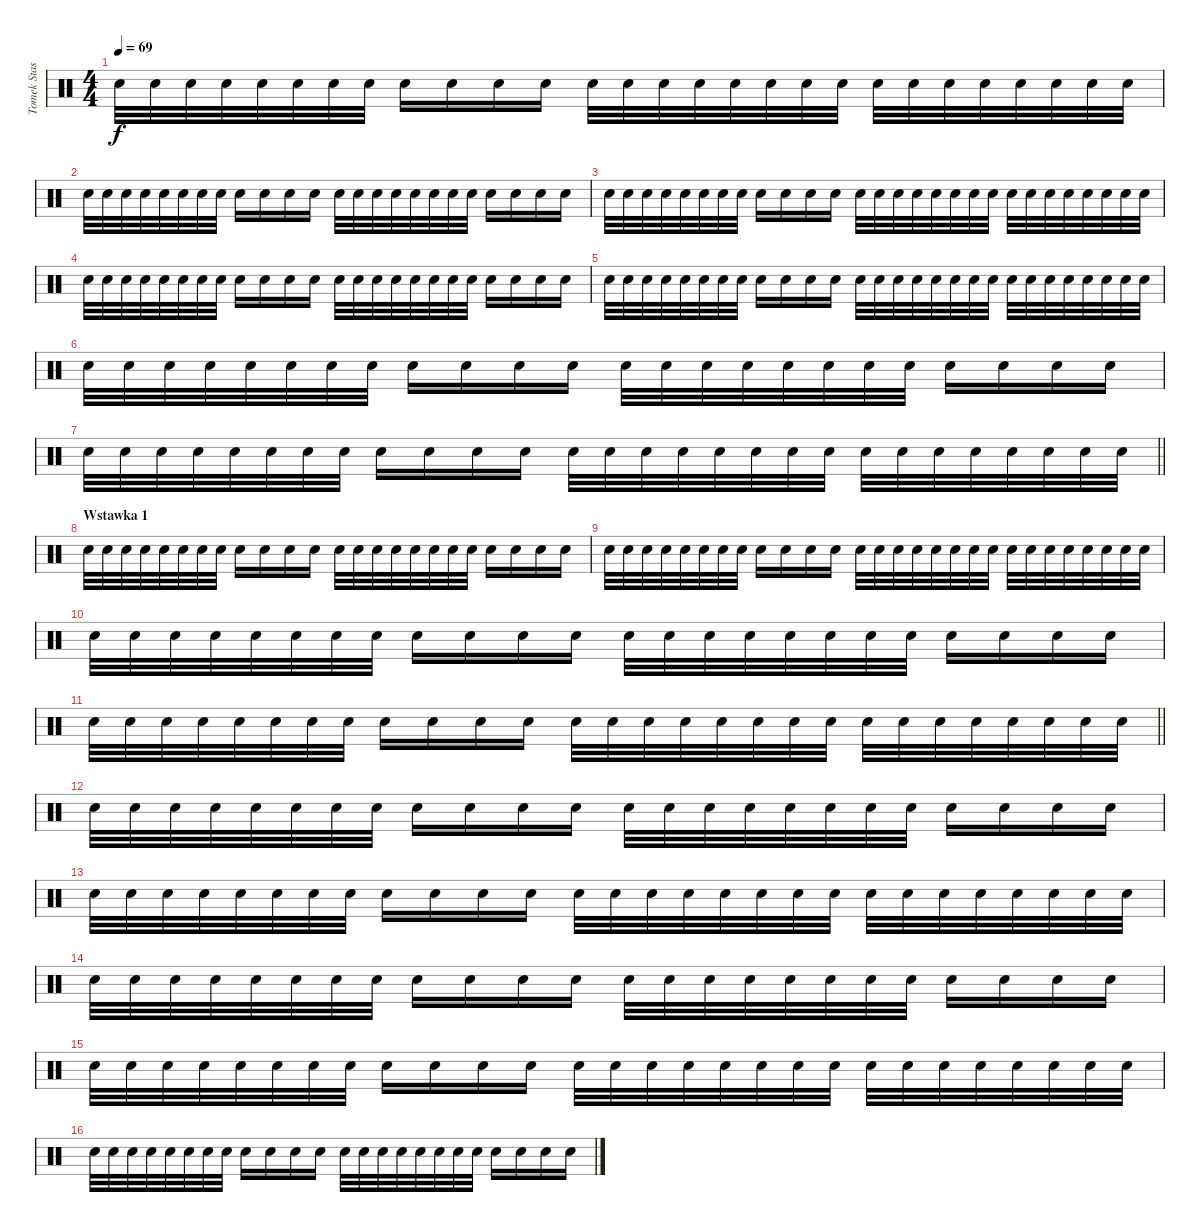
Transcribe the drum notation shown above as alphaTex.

\track ("Tomek Stasiak" "Tomek Stas") {instrument percussion}
\staff {score}
\articulation defaults
\ts (4 4)
\tempo 69
\clef neutral
\ks c "Snare (hit) 2".32{dy f volume 10} "Snare (hit) 2".32{volume 7} "Snare (hit) 2".32 "Snare (hit) 2".32 "Snare (hit) 2".32 "Snare (hit) 2".32 "Snare (hit) 2".32 "Snare (hit) 2".32 "Snare (hit) 2".16 "Snare (hit) 2".16 "Snare (hit) 2".16 "Snare (hit) 2".16 "Snare (hit) 2".32{volume 10} "Snare (hit) 2".32{volume 7} "Snare (hit) 2".32 "Snare (hit) 2".32 "Snare (hit) 2".32 "Snare (hit) 2".32 "Snare (hit) 2".32 "Snare (hit) 2".32 "Snare (hit) 2".32{volume 10} "Snare (hit) 2".32{volume 7} "Snare (hit) 2".32 "Snare (hit) 2".32 "Snare (hit) 2".32 "Snare (hit) 2".32 "Snare (hit) 2".32 "Snare (hit) 2".32
|
"Snare (hit) 2".32{volume 10} "Snare (hit) 2".32{volume 7} "Snare (hit) 2".32 "Snare (hit) 2".32 "Snare (hit) 2".32 "Snare (hit) 2".32 "Snare (hit) 2".32 "Snare (hit) 2".32 "Snare (hit) 2".16 "Snare (hit) 2".16 "Snare (hit) 2".16 "Snare (hit) 2".16 "Snare (hit) 2".32{volume 10} "Snare (hit) 2".32{volume 7} "Snare (hit) 2".32 "Snare (hit) 2".32 "Snare (hit) 2".32 "Snare (hit) 2".32 "Snare (hit) 2".32 "Snare (hit) 2".32 "Snare (hit) 2".16 "Snare (hit) 2".16 "Snare (hit) 2".16 "Snare (hit) 2".16 |
"Snare (hit) 2".32{volume 10} "Snare (hit) 2".32{volume 7} "Snare (hit) 2".32 "Snare (hit) 2".32 "Snare (hit) 2".32 "Snare (hit) 2".32 "Snare (hit) 2".32 "Snare (hit) 2".32 "Snare (hit) 2".16 "Snare (hit) 2".16 "Snare (hit) 2".16 "Snare (hit) 2".16 "Snare (hit) 2".32{volume 10} "Snare (hit) 2".32{volume 7} "Snare (hit) 2".32 "Snare (hit) 2".32 "Snare (hit) 2".32 "Snare (hit) 2".32 "Snare (hit) 2".32 "Snare (hit) 2".32 "Snare (hit) 2".32{volume 10} "Snare (hit) 2".32{volume 7} "Snare (hit) 2".32 "Snare (hit) 2".32 "Snare (hit) 2".32 "Snare (hit) 2".32 "Snare (hit) 2".32 "Snare (hit) 2".32 |
"Snare (hit) 2".32{volume 10} "Snare (hit) 2".32{volume 7} "Snare (hit) 2".32 "Snare (hit) 2".32 "Snare (hit) 2".32 "Snare (hit) 2".32 "Snare (hit) 2".32 "Snare (hit) 2".32 "Snare (hit) 2".16 "Snare (hit) 2".16 "Snare (hit) 2".16 "Snare (hit) 2".16 "Snare (hit) 2".32{volume 10} "Snare (hit) 2".32{volume 7} "Snare (hit) 2".32 "Snare (hit) 2".32 "Snare (hit) 2".32 "Snare (hit) 2".32 "Snare (hit) 2".32 "Snare (hit) 2".32 "Snare (hit) 2".16 "Snare (hit) 2".16 "Snare (hit) 2".16 "Snare (hit) 2".16 |
"Snare (hit) 2".32{volume 10} "Snare (hit) 2".32{volume 7} "Snare (hit) 2".32 "Snare (hit) 2".32 "Snare (hit) 2".32 "Snare (hit) 2".32 "Snare (hit) 2".32 "Snare (hit) 2".32 "Snare (hit) 2".16 "Snare (hit) 2".16 "Snare (hit) 2".16 "Snare (hit) 2".16 "Snare (hit) 2".32{volume 10} "Snare (hit) 2".32{volume 7} "Snare (hit) 2".32 "Snare (hit) 2".32 "Snare (hit) 2".32 "Snare (hit) 2".32 "Snare (hit) 2".32 "Snare (hit) 2".32 "Snare (hit) 2".32{volume 10} "Snare (hit) 2".32{volume 7} "Snare (hit) 2".32 "Snare (hit) 2".32 "Snare (hit) 2".32 "Snare (hit) 2".32 "Snare (hit) 2".32 "Snare (hit) 2".32 |
"Snare (hit) 2".32{volume 10} "Snare (hit) 2".32{volume 7} "Snare (hit) 2".32 "Snare (hit) 2".32 "Snare (hit) 2".32 "Snare (hit) 2".32 "Snare (hit) 2".32 "Snare (hit) 2".32 "Snare (hit) 2".16 "Snare (hit) 2".16 "Snare (hit) 2".16 "Snare (hit) 2".16 "Snare (hit) 2".32{volume 10} "Snare (hit) 2".32{volume 7} "Snare (hit) 2".32 "Snare (hit) 2".32 "Snare (hit) 2".32 "Snare (hit) 2".32 "Snare (hit) 2".32 "Snare (hit) 2".32 "Snare (hit) 2".16 "Snare (hit) 2".16 "Snare (hit) 2".16 "Snare (hit) 2".16 |
\barLineRight lightlight "Snare (hit) 2".32{volume 10} "Snare (hit) 2".32{volume 7} "Snare (hit) 2".32 "Snare (hit) 2".32 "Snare (hit) 2".32 "Snare (hit) 2".32 "Snare (hit) 2".32 "Snare (hit) 2".32 "Snare (hit) 2".16 "Snare (hit) 2".16 "Snare (hit) 2".16 "Snare (hit) 2".16 "Snare (hit) 2".32{volume 10} "Snare (hit) 2".32{volume 7} "Snare (hit) 2".32 "Snare (hit) 2".32 "Snare (hit) 2".32 "Snare (hit) 2".32 "Snare (hit) 2".32 "Snare (hit) 2".32 "Snare (hit) 2".32{volume 10} "Snare (hit) 2".32{volume 7} "Snare (hit) 2".32 "Snare (hit) 2".32 "Snare (hit) 2".32 "Snare (hit) 2".32 "Snare (hit) 2".32 "Snare (hit) 2".32
|
\section ("" "Wstawka 1")
"Snare (hit) 2".32{volume 10} "Snare (hit) 2".32{volume 7} "Snare (hit) 2".32 "Snare (hit) 2".32 "Snare (hit) 2".32 "Snare (hit) 2".32 "Snare (hit) 2".32 "Snare (hit) 2".32 "Snare (hit) 2".16 "Snare (hit) 2".16 "Snare (hit) 2".16 "Snare (hit) 2".16 "Snare (hit) 2".32{volume 10} "Snare (hit) 2".32{volume 7} "Snare (hit) 2".32 "Snare (hit) 2".32 "Snare (hit) 2".32 "Snare (hit) 2".32 "Snare (hit) 2".32 "Snare (hit) 2".32 "Snare (hit) 2".16 "Snare (hit) 2".16 "Snare (hit) 2".16 "Snare (hit) 2".16 |
"Snare (hit) 2".32{volume 10} "Snare (hit) 2".32{volume 7} "Snare (hit) 2".32 "Snare (hit) 2".32 "Snare (hit) 2".32 "Snare (hit) 2".32 "Snare (hit) 2".32 "Snare (hit) 2".32 "Snare (hit) 2".16 "Snare (hit) 2".16 "Snare (hit) 2".16 "Snare (hit) 2".16 "Snare (hit) 2".32{volume 10} "Snare (hit) 2".32{volume 7} "Snare (hit) 2".32 "Snare (hit) 2".32 "Snare (hit) 2".32 "Snare (hit) 2".32 "Snare (hit) 2".32 "Snare (hit) 2".32 "Snare (hit) 2".32{volume 10} "Snare (hit) 2".32{volume 7} "Snare (hit) 2".32 "Snare (hit) 2".32 "Snare (hit) 2".32 "Snare (hit) 2".32 "Snare (hit) 2".32 "Snare (hit) 2".32 |
"Snare (hit) 2".32{volume 10} "Snare (hit) 2".32{volume 7} "Snare (hit) 2".32 "Snare (hit) 2".32 "Snare (hit) 2".32 "Snare (hit) 2".32 "Snare (hit) 2".32 "Snare (hit) 2".32 "Snare (hit) 2".16 "Snare (hit) 2".16 "Snare (hit) 2".16 "Snare (hit) 2".16 "Snare (hit) 2".32{volume 10} "Snare (hit) 2".32{volume 7} "Snare (hit) 2".32 "Snare (hit) 2".32 "Snare (hit) 2".32 "Snare (hit) 2".32 "Snare (hit) 2".32 "Snare (hit) 2".32 "Snare (hit) 2".16 "Snare (hit) 2".16 "Snare (hit) 2".16 "Snare (hit) 2".16 |
\barLineRight lightlight "Snare (hit) 2".32{volume 10} "Snare (hit) 2".32{volume 7} "Snare (hit) 2".32 "Snare (hit) 2".32 "Snare (hit) 2".32 "Snare (hit) 2".32 "Snare (hit) 2".32 "Snare (hit) 2".32 "Snare (hit) 2".16 "Snare (hit) 2".16 "Snare (hit) 2".16 "Snare (hit) 2".16 "Snare (hit) 2".32{volume 10} "Snare (hit) 2".32{volume 7} "Snare (hit) 2".32 "Snare (hit) 2".32 "Snare (hit) 2".32 "Snare (hit) 2".32 "Snare (hit) 2".32 "Snare (hit) 2".32 "Snare (hit) 2".32{volume 10} "Snare (hit) 2".32{volume 7} "Snare (hit) 2".32 "Snare (hit) 2".32 "Snare (hit) 2".32 "Snare (hit) 2".32 "Snare (hit) 2".32 "Snare (hit) 2".32
|
"Snare (hit) 2".32{volume 10} "Snare (hit) 2".32{volume 7} "Snare (hit) 2".32 "Snare (hit) 2".32 "Snare (hit) 2".32 "Snare (hit) 2".32 "Snare (hit) 2".32 "Snare (hit) 2".32 "Snare (hit) 2".16 "Snare (hit) 2".16 "Snare (hit) 2".16 "Snare (hit) 2".16 "Snare (hit) 2".32{volume 10} "Snare (hit) 2".32{volume 7} "Snare (hit) 2".32 "Snare (hit) 2".32 "Snare (hit) 2".32 "Snare (hit) 2".32 "Snare (hit) 2".32 "Snare (hit) 2".32 "Snare (hit) 2".16 "Snare (hit) 2".16 "Snare (hit) 2".16 "Snare (hit) 2".16 |
"Snare (hit) 2".32{volume 10} "Snare (hit) 2".32{volume 7} "Snare (hit) 2".32 "Snare (hit) 2".32 "Snare (hit) 2".32 "Snare (hit) 2".32 "Snare (hit) 2".32 "Snare (hit) 2".32 "Snare (hit) 2".16 "Snare (hit) 2".16 "Snare (hit) 2".16 "Snare (hit) 2".16 "Snare (hit) 2".32{volume 10} "Snare (hit) 2".32{volume 7} "Snare (hit) 2".32 "Snare (hit) 2".32 "Snare (hit) 2".32 "Snare (hit) 2".32 "Snare (hit) 2".32 "Snare (hit) 2".32 "Snare (hit) 2".32{volume 10} "Snare (hit) 2".32{volume 7} "Snare (hit) 2".32 "Snare (hit) 2".32 "Snare (hit) 2".32 "Snare (hit) 2".32 "Snare (hit) 2".32 "Snare (hit) 2".32 |
"Snare (hit) 2".32{volume 10} "Snare (hit) 2".32{volume 7} "Snare (hit) 2".32 "Snare (hit) 2".32 "Snare (hit) 2".32 "Snare (hit) 2".32 "Snare (hit) 2".32 "Snare (hit) 2".32 "Snare (hit) 2".16 "Snare (hit) 2".16 "Snare (hit) 2".16 "Snare (hit) 2".16 "Snare (hit) 2".32{volume 10} "Snare (hit) 2".32{volume 7} "Snare (hit) 2".32 "Snare (hit) 2".32 "Snare (hit) 2".32 "Snare (hit) 2".32 "Snare (hit) 2".32 "Snare (hit) 2".32 "Snare (hit) 2".16 "Snare (hit) 2".16 "Snare (hit) 2".16 "Snare (hit) 2".16 |
"Snare (hit) 2".32{volume 10} "Snare (hit) 2".32{volume 7} "Snare (hit) 2".32 "Snare (hit) 2".32 "Snare (hit) 2".32 "Snare (hit) 2".32 "Snare (hit) 2".32 "Snare (hit) 2".32 "Snare (hit) 2".16 "Snare (hit) 2".16 "Snare (hit) 2".16 "Snare (hit) 2".16 "Snare (hit) 2".32{volume 10} "Snare (hit) 2".32{volume 7} "Snare (hit) 2".32 "Snare (hit) 2".32 "Snare (hit) 2".32 "Snare (hit) 2".32 "Snare (hit) 2".32 "Snare (hit) 2".32 "Snare (hit) 2".32{volume 10} "Snare (hit) 2".32{volume 7} "Snare (hit) 2".32 "Snare (hit) 2".32 "Snare (hit) 2".32 "Snare (hit) 2".32 "Snare (hit) 2".32 "Snare (hit) 2".32 |
"Snare (hit) 2".32{volume 10} "Snare (hit) 2".32{volume 7} "Snare (hit) 2".32 "Snare (hit) 2".32 "Snare (hit) 2".32 "Snare (hit) 2".32 "Snare (hit) 2".32 "Snare (hit) 2".32 "Snare (hit) 2".16 "Snare (hit) 2".16 "Snare (hit) 2".16 "Snare (hit) 2".16 "Snare (hit) 2".32{volume 10} "Snare (hit) 2".32{volume 7} "Snare (hit) 2".32 "Snare (hit) 2".32 "Snare (hit) 2".32 "Snare (hit) 2".32 "Snare (hit) 2".32 "Snare (hit) 2".32 "Snare (hit) 2".16 "Snare (hit) 2".16 "Snare (hit) 2".16 "Snare (hit) 2".16
